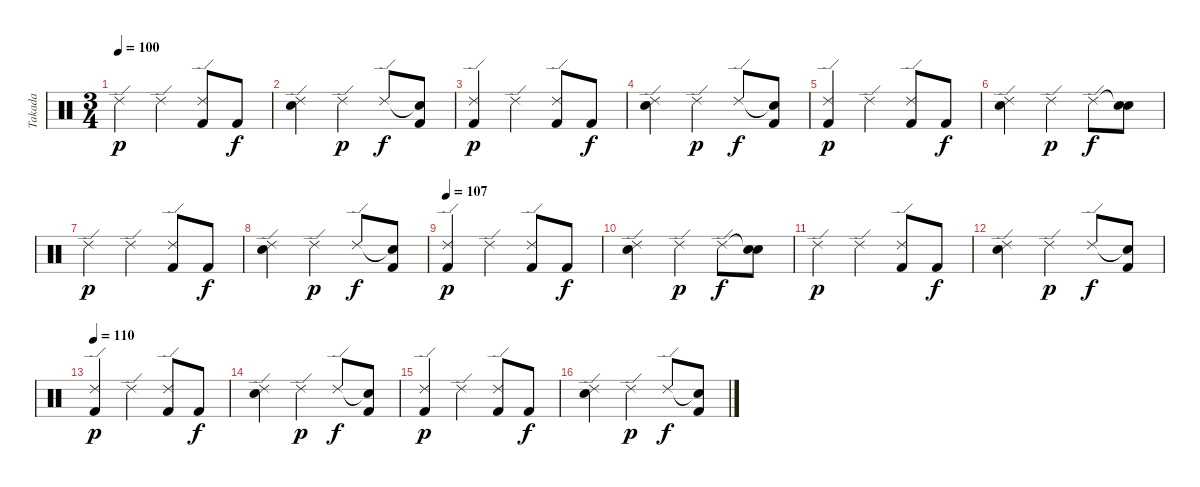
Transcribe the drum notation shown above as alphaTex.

\track ("Takada" "Takada") {instrument percussion}
\staff {score}
\articulation defaults
\ts (3 4)
\tempo 100
\clef neutral
\ks c "Ride (edge) 2".4{dy p} "Ride (edge) 2".4
("Ride (edge) 2" "Kick (hit) 2").8 "Kick (hit) 2".8{dy f} |
("Ride (edge) 2" "Electric Snare (hit)").4 "Ride (edge) 2".4{dy p} "Ride (edge) 2".8{dy f} ("Snare (hit)"{t} "Kick (hit) 2").8 |
("Ride (edge) 2" "Kick (hit) 2").4{dy p} "Ride (edge) 2".4 ("Ride (edge) 2" "Kick (hit) 2").8 "Kick (hit) 2".8{dy f} |
("Ride (edge) 2" "Electric Snare (hit)").4 "Ride (edge) 2".4{dy p} "Ride (edge) 2".8{dy f} ("Snare (hit)"{t} "Kick (hit) 2").8 |
("Ride (edge) 2" "Kick (hit) 2").4{dy p} "Ride (edge) 2".4 ("Ride (edge) 2" "Kick (hit) 2").8 "Kick (hit) 2".8{dy f} |
("Ride (edge) 2" "Electric Snare (hit)").4 "Ride (edge) 2".4{dy p} "Ride (edge) 2".8{dy f} ("Snare (hit)"{t} "Electric Snare (hit)").8 |
"Ride (edge) 2".4{dy p} "Ride (edge) 2".4 ("Ride (edge) 2" "Kick (hit) 2").8 "Kick (hit) 2".8{dy f} |
("Ride (edge) 2" "Electric Snare (hit)").4 "Ride (edge) 2".4{dy p} "Ride (edge) 2".8{dy f} ("Snare (hit)"{t} "Kick (hit) 2").8 |
\tempo 107
("Ride (edge) 2" "Kick (hit) 2").4{dy p} "Ride (edge) 2".4 ("Ride (edge) 2" "Kick (hit) 2").8 "Kick (hit) 2".8{dy f} |
("Ride (edge) 2" "Electric Snare (hit)").4 "Ride (edge) 2".4{dy p} "Ride (edge) 2".8{dy f} ("Snare (hit)"{t} "Electric Snare (hit)").8 |
"Ride (edge) 2".4{dy p} "Ride (edge) 2".4 ("Ride (edge) 2" "Kick (hit) 2").8 "Kick (hit) 2".8{dy f} |
("Ride (edge) 2" "Electric Snare (hit)").4 "Ride (edge) 2".4{dy p} "Ride (edge) 2".8{dy f} ("Snare (hit)"{t} "Kick (hit) 2").8 |
\tempo 110
("Ride (edge) 2" "Kick (hit) 2").4{dy p} "Ride (edge) 2".4 ("Ride (edge) 2" "Kick (hit) 2").8 "Kick (hit) 2".8{dy f} |
("Ride (edge) 2" "Electric Snare (hit)").4 "Ride (edge) 2".4{dy p} "Ride (edge) 2".8{dy f} ("Snare (hit)"{t} "Kick (hit) 2").8 |
("Ride (edge) 2" "Kick (hit) 2").4{dy p} "Ride (edge) 2".4 ("Ride (edge) 2" "Kick (hit) 2").8 "Kick (hit) 2".8{dy f} |
("Ride (edge) 2" "Electric Snare (hit)").4 "Ride (edge) 2".4{dy p} "Ride (edge) 2".8{dy f} ("Snare (hit)"{t} "Kick (hit) 2").8
